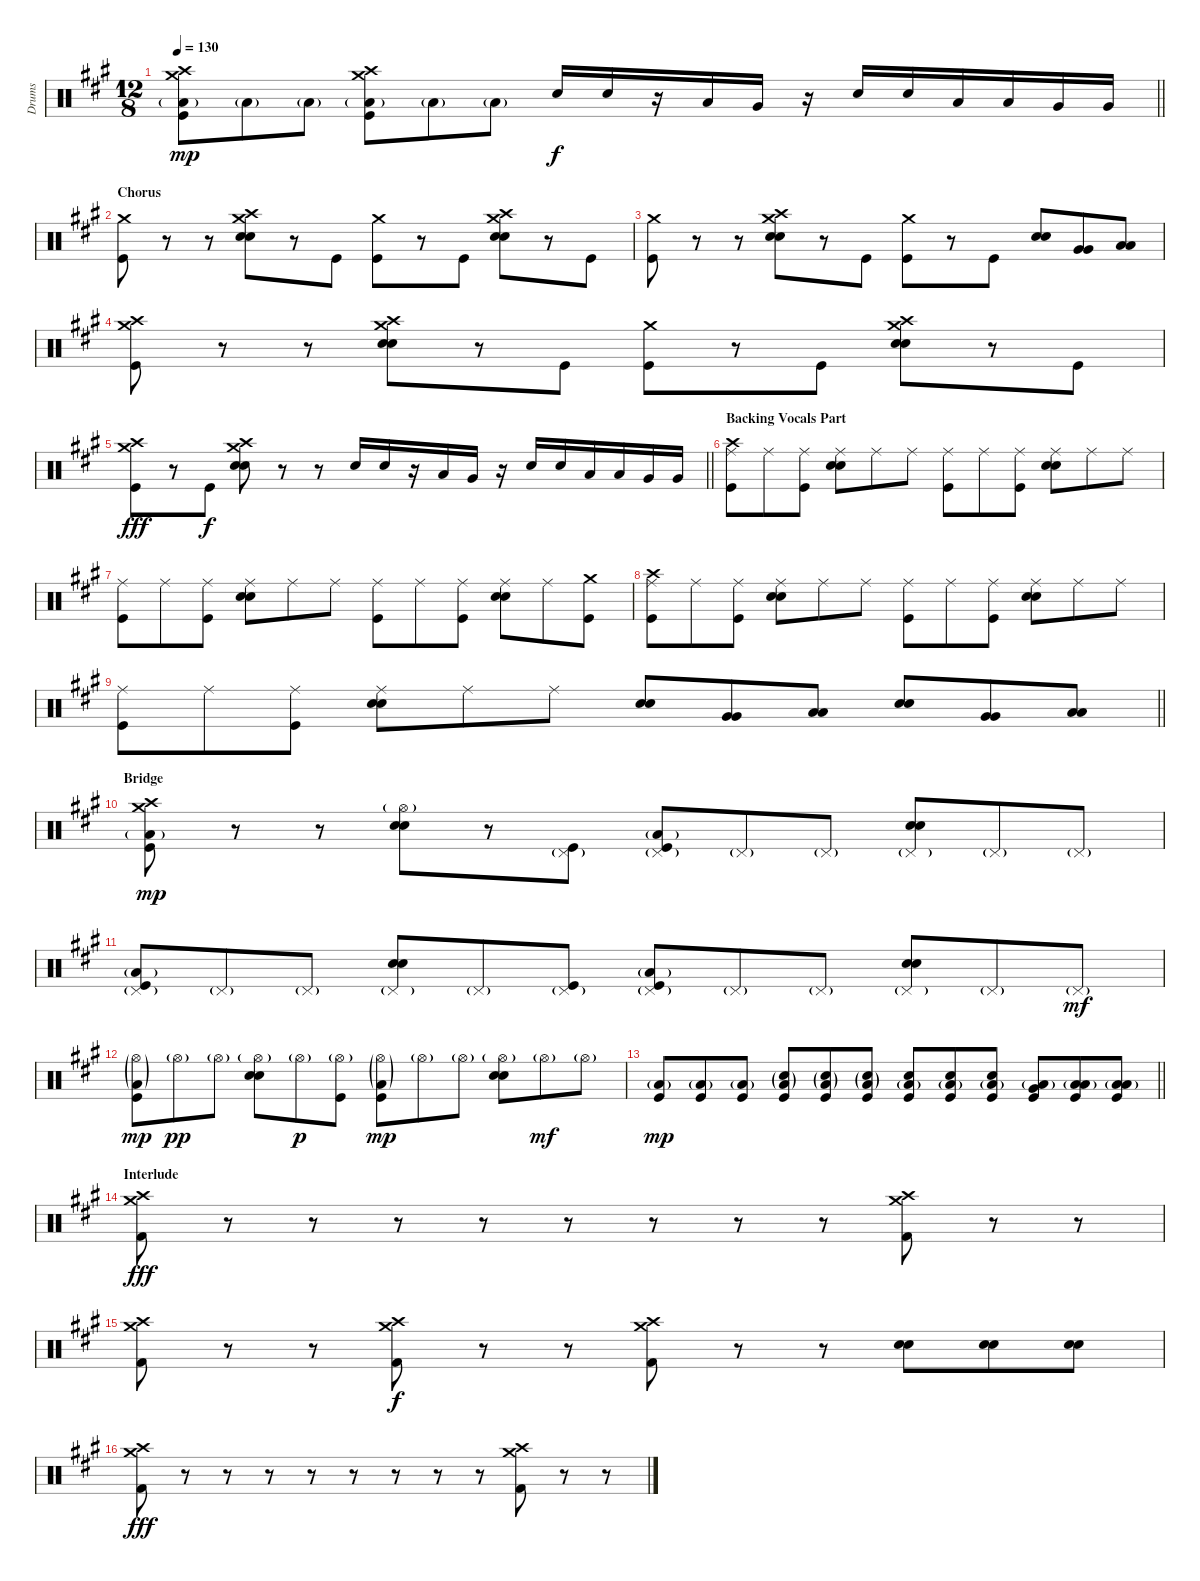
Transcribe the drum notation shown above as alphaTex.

\track ("Drums" "Drums") {instrument percussion}
\staff {score}
\articulation defaults
\ts (12 8)
\tempo 130
\clef neutral
\barLineRight lightlight
\ks a
("Crash high (hit)" "Crash medium (hit)" "Kick (hit)" "Low Floor Tom (hit)"{g}).8{dy mp} "Low Floor Tom (hit)"{g}.8 "Low Floor Tom (hit)"{g}.8 ("Crash high (hit)" "Crash medium (hit)" "Kick (hit)" "Low Floor Tom (hit)"{g}).8 "Low Floor Tom (hit)"{g}.8 "Low Floor Tom (hit)"{g}.8 "Snare (hit) 2".16{dy f} "Snare (hit) 2".16 r.16 "Low Tom (hit)".16 "Very Low Tom (hit)".16 r.16 "Snare (hit) 2".16 "Snare (hit) 2".16 "Low Tom (hit)".16 "Low Tom (hit)".16 "Very Low Tom (hit)".16 "Very Low Tom (hit)".16 |
\section ("" "Chorus")
("Crash medium (hit)" "Kick (hit)").8 r.8 r.8 ("Crash high (hit)" "Crash medium (hit)" "Snare (hit) 2" "Snare (hit) 2").8 r.8 "Kick (hit)".8 ("Crash medium (hit)" "Kick (hit)").8 r.8 "Kick (hit)".8 ("Crash high (hit)" "Crash medium (hit)" "Snare (hit) 2" "Snare (hit) 2").8 r.8 "Kick (hit)".8 |
("Crash medium (hit)" "Kick (hit)").8 r.8 r.8 ("Crash high (hit)" "Crash medium (hit)" "Snare (hit) 2" "Snare (hit) 2").8 r.8 "Kick (hit)".8 ("Crash medium (hit)" "Kick (hit)").8 r.8 "Kick (hit)".8 ("Snare (hit) 2" "Snare (hit) 2").8 ("Very Low Tom (hit)" "Very Low Tom (hit)").8 ("Low Floor Tom (hit)" "Low Floor Tom (hit)").8 |
("Crash high (hit)" "Crash medium (hit)" "Kick (hit)").8 r.8 r.8 ("Crash high (hit)" "Crash medium (hit)" "Snare (hit) 2" "Snare (hit) 2").8 r.8 "Kick (hit)".8 ("Crash medium (hit)" "Kick (hit)").8 r.8 "Kick (hit)".8 ("Crash high (hit)" "Crash medium (hit)" "Snare (hit) 2" "Snare (hit) 2").8 r.8 "Kick (hit)".8 |
\barLineRight lightlight
("Crash high (hit)" "Crash medium (hit)" "Kick (hit)").8{dy fff} r.8 "Kick (hit)".8{dy f} ("Crash high (hit)" "Crash medium (hit)" "Snare (hit) 2" "Snare (hit) 2").8 r.8 r.8 "Snare (hit) 2".16 "Snare (hit) 2".16 r.16 "Low Tom (hit)".16 "Very Low Tom (hit)".16 r.16 "Snare (hit) 2".16 "Snare (hit) 2".16 "Low Tom (hit)".16 "Low Tom (hit)".16 "Very Low Tom (hit)".16 "Very Low Tom (hit)".16 |
\section ("" "Backing Vocals Part")
("Crash high (hit)" "Ride (middle)" "Kick (hit)").8 "Ride (middle)".8 ("Ride (middle)" "Kick (hit)").8 ("Ride (middle)" "Snare (hit) 2" "Snare (hit) 2").8 "Ride (middle)".8 "Ride (middle)".8 ("Ride (middle)" "Kick (hit)").8 "Ride (middle)".8 ("Ride (middle)" "Kick (hit)").8 ("Ride (middle)" "Snare (hit) 2" "Snare (hit) 2").8 "Ride (middle)".8 "Ride (middle)".8 |
("Ride (middle)" "Kick (hit)").8 "Ride (middle)".8 ("Ride (middle)" "Kick (hit)").8 ("Ride (middle)" "Snare (hit) 2" "Snare (hit) 2").8 "Ride (middle)".8 "Ride (middle)".8 ("Ride (middle)" "Kick (hit)").8 "Ride (middle)".8 ("Ride (middle)" "Kick (hit)").8 ("Ride (middle)" "Snare (hit) 2" "Snare (hit) 2").8 "Ride (middle)".8 ("Crash medium (hit)" "Kick (hit)").8 |
("Crash high (hit)" "Ride (middle)" "Kick (hit)").8 "Ride (middle)".8 ("Ride (middle)" "Kick (hit)").8 ("Ride (middle)" "Snare (hit) 2" "Snare (hit) 2").8 "Ride (middle)".8 "Ride (middle)".8 ("Ride (middle)" "Kick (hit)").8 "Ride (middle)".8 ("Ride (middle)" "Kick (hit)").8 ("Ride (middle)" "Snare (hit) 2" "Snare (hit) 2").8 "Ride (middle)".8 "Ride (middle)".8 |
\barLineRight lightlight
("Ride (middle)" "Kick (hit)").8 "Ride (middle)".8 ("Ride (middle)" "Kick (hit)").8 ("Ride (middle)" "Snare (hit) 2" "Snare (hit) 2").8 "Ride (middle)".8 "Ride (middle)".8 ("Snare (hit) 2" "Snare (hit) 2").8 ("Very Low Tom (hit)" "Very Low Tom (hit)").8 ("Low Floor Tom (hit)" "Low Floor Tom (hit)").8 ("Snare (hit) 2" "Snare (hit) 2").8 ("Very Low Tom (hit)" "Very Low Tom (hit)").8 ("Low Floor Tom (hit)" "Low Floor Tom (hit)").8 |
\section ("" "Bridge")
("Crash high (hit)" "Crash medium (hit)" "Kick (hit)" "Low Floor Tom (hit)"{g}).8{dy mp} r.8 r.8 ("Hi-Hat (open)"{g} "Snare (hit) 2" "Snare (hit) 2").8 r.8 ("Pedal Hi-Hat (hit)"{g} "Kick (hit)").8 ("Pedal Hi-Hat (hit)"{g} "Kick (hit)" "Low Floor Tom (hit)"{g}).8 "Pedal Hi-Hat (hit)"{g}.8 "Pedal Hi-Hat (hit)"{g}.8 ("Pedal Hi-Hat (hit)"{g} "Snare (hit) 2" "Snare (hit) 2").8 "Pedal Hi-Hat (hit)"{g}.8 "Pedal Hi-Hat (hit)"{g}.8 |
("Pedal Hi-Hat (hit)"{g} "Kick (hit)" "Low Floor Tom (hit)"{g}).8 "Pedal Hi-Hat (hit)"{g}.8 "Pedal Hi-Hat (hit)"{g}.8 ("Pedal Hi-Hat (hit)"{g} "Snare (hit) 2" "Snare (hit) 2").8 "Pedal Hi-Hat (hit)"{g}.8 ("Pedal Hi-Hat (hit)"{g} "Kick (hit)").8 ("Pedal Hi-Hat (hit)"{g} "Kick (hit)" "Low Floor Tom (hit)"{g}).8 "Pedal Hi-Hat (hit)"{g}.8 "Pedal Hi-Hat (hit)"{g}.8 ("Pedal Hi-Hat (hit)"{g} "Snare (hit) 2" "Snare (hit) 2").8 "Pedal Hi-Hat (hit)"{g}.8 "Pedal Hi-Hat (hit)"{g}.8{dy mf} |
("Hi-Hat (open)"{g} "Kick (hit)" "Low Floor Tom (hit)"{g}).8{dy mp} "Hi-Hat (open)"{g}.8{dy pp} "Hi-Hat (open)"{g}.8 ("Hi-Hat (open)"{g} "Snare (hit) 2" "Snare (hit) 2").8 "Hi-Hat (open)"{g}.8{dy p} ("Hi-Hat (open)"{g} "Kick (hit)").8 ("Hi-Hat (open)"{g} "Kick (hit)" "Low Floor Tom (hit)"{g}).8{dy mp} "Hi-Hat (open)"{g}.8 "Hi-Hat (open)"{g}.8 ("Hi-Hat (open)"{g} "Snare (hit) 2" "Snare (hit) 2").8 "Hi-Hat (open)"{g}.8{dy mf} "Hi-Hat (open)"{g}.8 |
\barLineRight lightlight
("Kick (hit)" "Low Floor Tom (hit)"{g}).8{dy mp} ("Kick (hit)" "Low Floor Tom (hit)"{g}).8 ("Kick (hit)" "Low Floor Tom (hit)"{g}).8 ("Snare (hit) 2"{g} "Kick (hit)" "Low Floor Tom (hit)"{g}).8 ("Snare (hit) 2"{g} "Kick (hit)" "Low Floor Tom (hit)"{g}).8 ("Snare (hit) 2"{g} "Kick (hit)" "Low Floor Tom (hit)"{g}).8 ("Snare (hit) 2" "Kick (hit)" "Low Floor Tom (hit)"{g}).8 ("Snare (hit) 2" "Kick (hit)" "Low Floor Tom (hit)"{g}).8 ("Snare (hit) 2" "Kick (hit)" "Low Floor Tom (hit)"{g}).8 ("Very Low Tom (hit)" "Kick (hit)" "Low Floor Tom (hit)"{g}).8 ("Low Floor Tom (hit)" "Kick (hit)" "Low Floor Tom (hit)"{g}).8 ("Low Floor Tom (hit)" "Kick (hit)" "Low Floor Tom (hit)"{g}).8 |
\section ("" "Interlude")
("Crash high (hit)" "Crash medium (hit)" "Kick (hit) 2").8{dy fff} r.8 r.8 r.8 r.8 r.8 r.8 r.8 r.8 ("Crash high (hit)" "Crash medium (hit)" "Kick (hit) 2").8 r.8 r.8 |
("Crash high (hit)" "Crash medium (hit)" "Kick (hit) 2").8 r.8 r.8 ("Crash high (hit)" "Crash medium (hit)" "Kick (hit) 2").8{dy f} r.8 r.8 ("Crash high (hit)" "Crash medium (hit)" "Kick (hit) 2").8 r.8 r.8 ("Snare (hit) 2" "Snare (hit) 2").8 ("Snare (hit) 2" "Snare (hit) 2").8 ("Snare (hit) 2" "Snare (hit) 2").8 |
("Crash high (hit)" "Crash medium (hit)" "Kick (hit) 2").8{dy fff} r.8 r.8 r.8 r.8 r.8 r.8 r.8 r.8 ("Crash high (hit)" "Crash medium (hit)" "Kick (hit) 2").8 r.8 r.8
